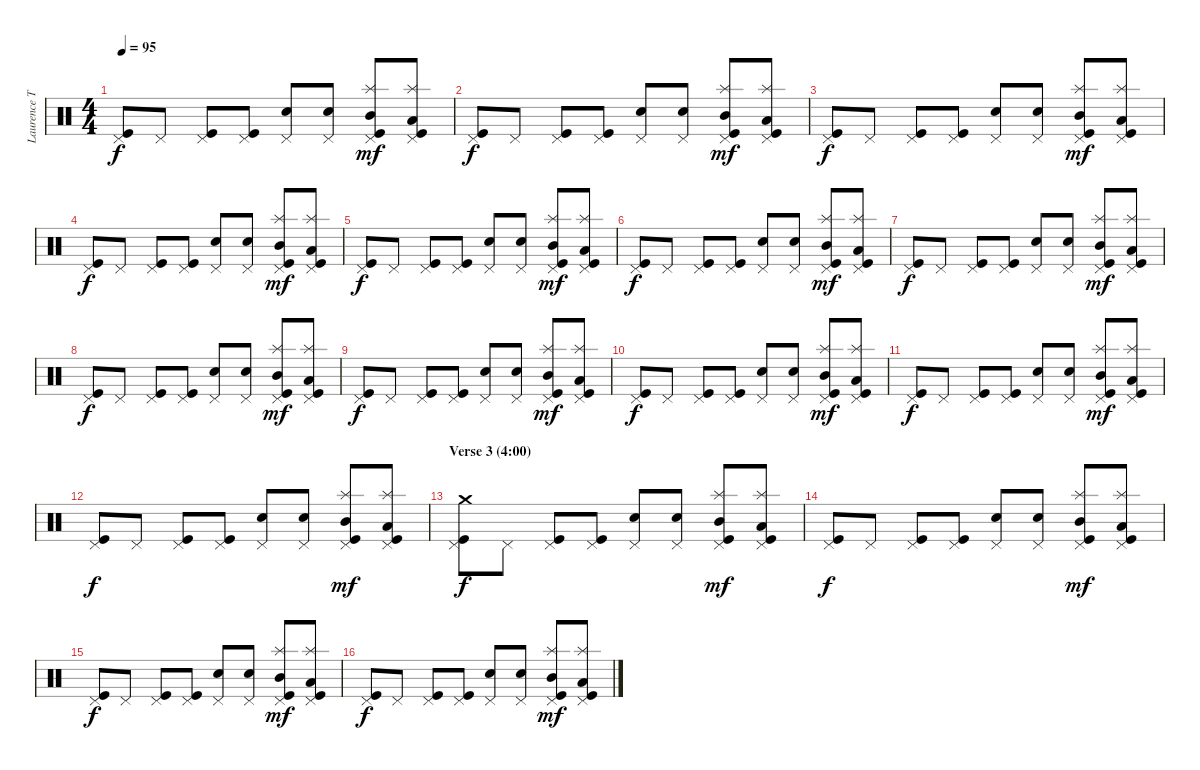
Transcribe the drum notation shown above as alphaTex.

\track ("Laurence Tolhurst (drums)" "Laurence T") {instrument percussion}
\staff {score}
\articulation defaults
\ts (4 4)
\tempo 95
\clef neutral
\ks c
("Pedal Hi-Hat (hit)" "Kick (hit)").8{dy f} "Pedal Hi-Hat (hit)".8 ("Pedal Hi-Hat (hit)" "Kick (hit)").8 ("Pedal Hi-Hat (hit)" "Kick (hit)").8 ("Pedal Hi-Hat (hit)" "Snare (hit) 2").8 ("Pedal Hi-Hat (hit)" "Snare (hit) 2").8 ("Splash (hit)" "Mid Tom (hit)" "Pedal Hi-Hat (hit)" "Kick (hit)").8{dy mf} ("Splash (hit)" "Low Tom (hit)" "Pedal Hi-Hat (hit)" "Kick (hit)").8 |
("Pedal Hi-Hat (hit)" "Kick (hit)").8{dy f} "Pedal Hi-Hat (hit)".8 ("Pedal Hi-Hat (hit)" "Kick (hit)").8 ("Pedal Hi-Hat (hit)" "Kick (hit)").8 ("Pedal Hi-Hat (hit)" "Snare (hit) 2").8 ("Pedal Hi-Hat (hit)" "Snare (hit) 2").8 ("Splash (hit)" "Mid Tom (hit)" "Pedal Hi-Hat (hit)" "Kick (hit)").8{dy mf} ("Splash (hit)" "Low Tom (hit)" "Pedal Hi-Hat (hit)" "Kick (hit)").8 |
("Pedal Hi-Hat (hit)" "Kick (hit)").8{dy f} "Pedal Hi-Hat (hit)".8 ("Pedal Hi-Hat (hit)" "Kick (hit)").8 ("Pedal Hi-Hat (hit)" "Kick (hit)").8 ("Pedal Hi-Hat (hit)" "Snare (hit) 2").8 ("Pedal Hi-Hat (hit)" "Snare (hit) 2").8 ("Splash (hit)" "Mid Tom (hit)" "Pedal Hi-Hat (hit)" "Kick (hit)").8{dy mf} ("Splash (hit)" "Low Tom (hit)" "Pedal Hi-Hat (hit)" "Kick (hit)").8 |
("Pedal Hi-Hat (hit)" "Kick (hit)").8{dy f} "Pedal Hi-Hat (hit)".8 ("Pedal Hi-Hat (hit)" "Kick (hit)").8 ("Pedal Hi-Hat (hit)" "Kick (hit)").8 ("Pedal Hi-Hat (hit)" "Snare (hit) 2").8 ("Pedal Hi-Hat (hit)" "Snare (hit) 2").8 ("Splash (hit)" "Mid Tom (hit)" "Pedal Hi-Hat (hit)" "Kick (hit)").8{dy mf} ("Splash (hit)" "Low Tom (hit)" "Pedal Hi-Hat (hit)" "Kick (hit)").8 |
("Pedal Hi-Hat (hit)" "Kick (hit)").8{dy f} "Pedal Hi-Hat (hit)".8 ("Pedal Hi-Hat (hit)" "Kick (hit)").8 ("Pedal Hi-Hat (hit)" "Kick (hit)").8 ("Pedal Hi-Hat (hit)" "Snare (hit) 2").8 ("Pedal Hi-Hat (hit)" "Snare (hit) 2").8 ("Splash (hit)" "Mid Tom (hit)" "Pedal Hi-Hat (hit)" "Kick (hit)").8{dy mf} ("Splash (hit)" "Low Tom (hit)" "Pedal Hi-Hat (hit)" "Kick (hit)").8 |
("Pedal Hi-Hat (hit)" "Kick (hit)").8{dy f} "Pedal Hi-Hat (hit)".8 ("Pedal Hi-Hat (hit)" "Kick (hit)").8 ("Pedal Hi-Hat (hit)" "Kick (hit)").8 ("Pedal Hi-Hat (hit)" "Snare (hit) 2").8 ("Pedal Hi-Hat (hit)" "Snare (hit) 2").8 ("Splash (hit)" "Mid Tom (hit)" "Pedal Hi-Hat (hit)" "Kick (hit)").8{dy mf} ("Splash (hit)" "Low Tom (hit)" "Pedal Hi-Hat (hit)" "Kick (hit)").8 |
("Pedal Hi-Hat (hit)" "Kick (hit)").8{dy f} "Pedal Hi-Hat (hit)".8 ("Pedal Hi-Hat (hit)" "Kick (hit)").8 ("Pedal Hi-Hat (hit)" "Kick (hit)").8 ("Pedal Hi-Hat (hit)" "Snare (hit) 2").8 ("Pedal Hi-Hat (hit)" "Snare (hit) 2").8 ("Splash (hit)" "Mid Tom (hit)" "Pedal Hi-Hat (hit)" "Kick (hit)").8{dy mf} ("Splash (hit)" "Low Tom (hit)" "Pedal Hi-Hat (hit)" "Kick (hit)").8 |
("Pedal Hi-Hat (hit)" "Kick (hit)").8{dy f} "Pedal Hi-Hat (hit)".8 ("Pedal Hi-Hat (hit)" "Kick (hit)").8 ("Pedal Hi-Hat (hit)" "Kick (hit)").8 ("Pedal Hi-Hat (hit)" "Snare (hit) 2").8 ("Pedal Hi-Hat (hit)" "Snare (hit) 2").8 ("Splash (hit)" "Mid Tom (hit)" "Pedal Hi-Hat (hit)" "Kick (hit)").8{dy mf} ("Splash (hit)" "Low Tom (hit)" "Pedal Hi-Hat (hit)" "Kick (hit)").8 |
("Pedal Hi-Hat (hit)" "Kick (hit)").8{dy f} "Pedal Hi-Hat (hit)".8 ("Pedal Hi-Hat (hit)" "Kick (hit)").8 ("Pedal Hi-Hat (hit)" "Kick (hit)").8 ("Pedal Hi-Hat (hit)" "Snare (hit) 2").8 ("Pedal Hi-Hat (hit)" "Snare (hit) 2").8 ("Splash (hit)" "Mid Tom (hit)" "Pedal Hi-Hat (hit)" "Kick (hit)").8{dy mf} ("Splash (hit)" "Low Tom (hit)" "Pedal Hi-Hat (hit)" "Kick (hit)").8 |
("Pedal Hi-Hat (hit)" "Kick (hit)").8{dy f} "Pedal Hi-Hat (hit)".8 ("Pedal Hi-Hat (hit)" "Kick (hit)").8 ("Pedal Hi-Hat (hit)" "Kick (hit)").8 ("Pedal Hi-Hat (hit)" "Snare (hit) 2").8 ("Pedal Hi-Hat (hit)" "Snare (hit) 2").8 ("Splash (hit)" "Mid Tom (hit)" "Pedal Hi-Hat (hit)" "Kick (hit)").8{dy mf} ("Splash (hit)" "Low Tom (hit)" "Pedal Hi-Hat (hit)" "Kick (hit)").8 |
("Pedal Hi-Hat (hit)" "Kick (hit)").8{dy f} "Pedal Hi-Hat (hit)".8 ("Pedal Hi-Hat (hit)" "Kick (hit)").8 ("Pedal Hi-Hat (hit)" "Kick (hit)").8 ("Pedal Hi-Hat (hit)" "Snare (hit) 2").8 ("Pedal Hi-Hat (hit)" "Snare (hit) 2").8 ("Splash (hit)" "Mid Tom (hit)" "Pedal Hi-Hat (hit)" "Kick (hit)").8{dy mf} ("Splash (hit)" "Low Tom (hit)" "Pedal Hi-Hat (hit)" "Kick (hit)").8 |
("Pedal Hi-Hat (hit)" "Kick (hit)").8{dy f} "Pedal Hi-Hat (hit)".8 ("Pedal Hi-Hat (hit)" "Kick (hit)").8 ("Pedal Hi-Hat (hit)" "Kick (hit)").8 ("Pedal Hi-Hat (hit)" "Snare (hit) 2").8 ("Pedal Hi-Hat (hit)" "Snare (hit) 2").8 ("Splash (hit)" "Mid Tom (hit)" "Pedal Hi-Hat (hit)" "Kick (hit)").8{dy mf} ("Splash (hit)" "Low Tom (hit)" "Pedal Hi-Hat (hit)" "Kick (hit)").8 |
\section ("" "Verse 3 (4:00)")
("Crash medium (hit)" "Pedal Hi-Hat (hit)" "Kick (hit)").8{dy f} "Pedal Hi-Hat (hit)".8 ("Pedal Hi-Hat (hit)" "Kick (hit)").8 ("Pedal Hi-Hat (hit)" "Kick (hit)").8 ("Pedal Hi-Hat (hit)" "Snare (hit) 2").8 ("Pedal Hi-Hat (hit)" "Snare (hit) 2").8 ("Splash (hit)" "Mid Tom (hit)" "Pedal Hi-Hat (hit)" "Kick (hit)").8{dy mf} ("Splash (hit)" "Low Tom (hit)" "Pedal Hi-Hat (hit)" "Kick (hit)").8 |
("Pedal Hi-Hat (hit)" "Kick (hit)").8{dy f} "Pedal Hi-Hat (hit)".8 ("Pedal Hi-Hat (hit)" "Kick (hit)").8 ("Pedal Hi-Hat (hit)" "Kick (hit)").8 ("Pedal Hi-Hat (hit)" "Snare (hit) 2").8 ("Pedal Hi-Hat (hit)" "Snare (hit) 2").8 ("Splash (hit)" "Mid Tom (hit)" "Pedal Hi-Hat (hit)" "Kick (hit)").8{dy mf} ("Splash (hit)" "Low Tom (hit)" "Pedal Hi-Hat (hit)" "Kick (hit)").8 |
("Pedal Hi-Hat (hit)" "Kick (hit)").8{dy f} "Pedal Hi-Hat (hit)".8 ("Pedal Hi-Hat (hit)" "Kick (hit)").8 ("Pedal Hi-Hat (hit)" "Kick (hit)").8 ("Pedal Hi-Hat (hit)" "Snare (hit) 2").8 ("Pedal Hi-Hat (hit)" "Snare (hit) 2").8 ("Splash (hit)" "Mid Tom (hit)" "Pedal Hi-Hat (hit)" "Kick (hit)").8{dy mf} ("Splash (hit)" "Low Tom (hit)" "Pedal Hi-Hat (hit)" "Kick (hit)").8 |
("Pedal Hi-Hat (hit)" "Kick (hit)").8{dy f} "Pedal Hi-Hat (hit)".8 ("Pedal Hi-Hat (hit)" "Kick (hit)").8 ("Pedal Hi-Hat (hit)" "Kick (hit)").8 ("Pedal Hi-Hat (hit)" "Snare (hit) 2").8 ("Pedal Hi-Hat (hit)" "Snare (hit) 2").8 ("Splash (hit)" "Mid Tom (hit)" "Pedal Hi-Hat (hit)" "Kick (hit)").8{dy mf} ("Splash (hit)" "Low Tom (hit)" "Pedal Hi-Hat (hit)" "Kick (hit)").8
